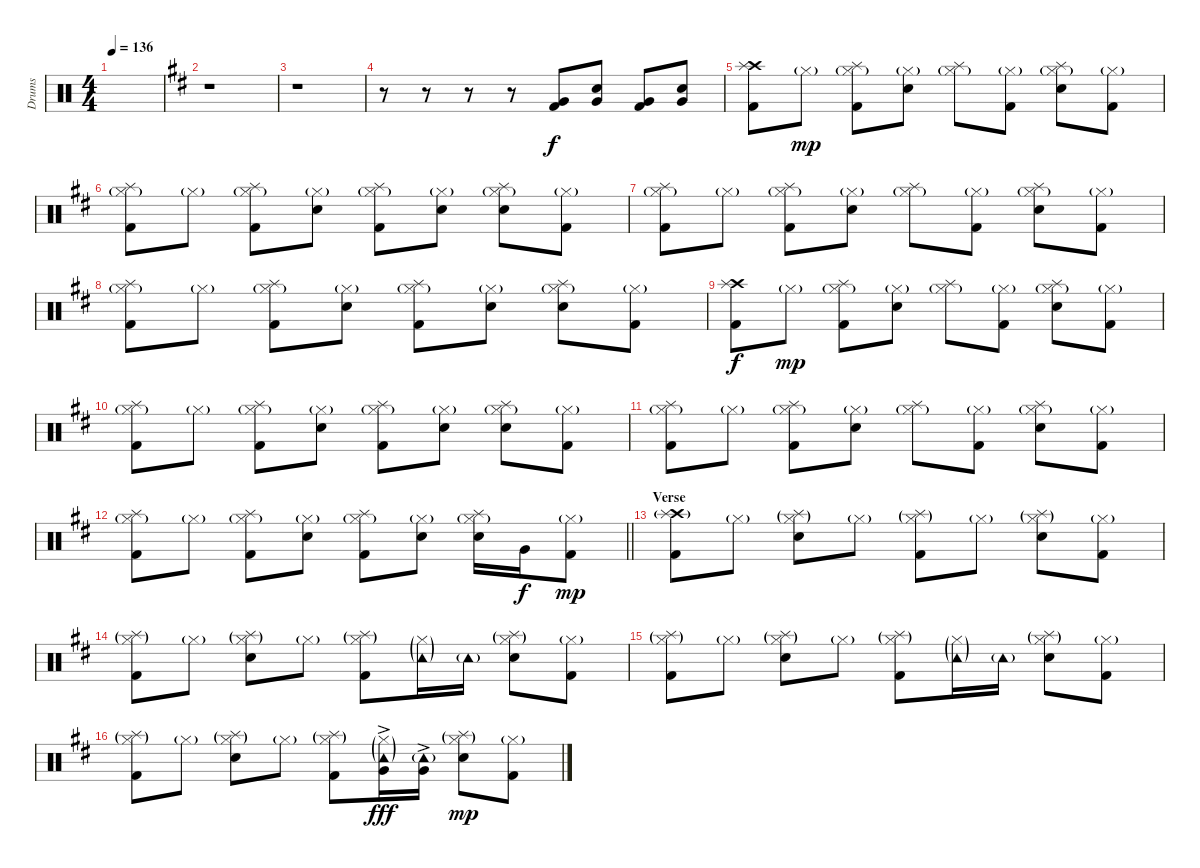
\track ("Drums" "Drums") {instrument percussion}
\staff {score}
\articulation defaults
\ts (4 4)
\tempo 136
\clef neutral
\ks c
|
\ks d
r.1 |
r.1 |
r.8 r.8 r.8 r.8 ("Very Low Tom (hit)" "Kick (hit) 2").8{volume 13} ("Very Low Tom (hit)" "Snare (hit) 2").8 ("Very Low Tom (hit)" "Kick (hit) 2").8 ("Very Low Tom (hit)" "Snare (hit) 2").8 |
("Crash high (hit)" "Splash (hit)" "Kick (hit) 2").8 "Hi-Hat (closed)"{g}.8{dy mp} ("Hi-Hat (closed)"{g} "Splash (hit)" "Kick (hit) 2").8 ("Hi-Hat (closed)"{g} "Snare (hit) 2").8 ("Hi-Hat (closed)"{g} "Splash (hit)").8 ("Hi-Hat (closed)"{g} "Kick (hit) 2").8 ("Hi-Hat (closed)"{g} "Splash (hit)" "Snare (hit) 2").8 ("Hi-Hat (closed)"{g} "Kick (hit) 2").8 |
("Hi-Hat (closed)"{g} "Splash (hit)" "Kick (hit) 2").8 "Hi-Hat (closed)"{g}.8 ("Hi-Hat (closed)"{g} "Splash (hit)" "Kick (hit) 2").8 ("Hi-Hat (closed)"{g} "Snare (hit) 2").8 ("Hi-Hat (closed)"{g} "Splash (hit)" "Kick (hit) 2").8 ("Hi-Hat (closed)"{g} "Snare (hit) 2").8 ("Hi-Hat (closed)"{g} "Splash (hit)" "Snare (hit) 2").8 ("Hi-Hat (closed)"{g} "Kick (hit) 2").8 |
("Hi-Hat (closed)"{g} "Splash (hit)" "Kick (hit) 2").8 "Hi-Hat (closed)"{g}.8 ("Hi-Hat (closed)"{g} "Splash (hit)" "Kick (hit) 2").8 ("Hi-Hat (closed)"{g} "Snare (hit) 2").8 ("Hi-Hat (closed)"{g} "Splash (hit)").8 ("Hi-Hat (closed)"{g} "Kick (hit) 2").8 ("Hi-Hat (closed)"{g} "Splash (hit)" "Snare (hit) 2").8 ("Hi-Hat (closed)"{g} "Kick (hit) 2").8 |
("Hi-Hat (closed)"{g} "Splash (hit)" "Kick (hit) 2").8 "Hi-Hat (closed)"{g}.8 ("Hi-Hat (closed)"{g} "Splash (hit)" "Kick (hit) 2").8 ("Hi-Hat (closed)"{g} "Snare (hit) 2").8 ("Hi-Hat (closed)"{g} "Splash (hit)" "Kick (hit) 2").8 ("Hi-Hat (closed)"{g} "Snare (hit) 2").8 ("Hi-Hat (closed)"{g} "Splash (hit)" "Snare (hit) 2").8 ("Hi-Hat (closed)"{g} "Kick (hit) 2").8 |
("Crash high (hit)" "Splash (hit)" "Kick (hit) 2").8{dy f} "Hi-Hat (closed)"{g}.8{dy mp} ("Hi-Hat (closed)"{g} "Splash (hit)" "Kick (hit) 2").8 ("Hi-Hat (closed)"{g} "Snare (hit) 2").8 ("Hi-Hat (closed)"{g} "Splash (hit)").8 ("Hi-Hat (closed)"{g} "Kick (hit) 2").8 ("Hi-Hat (closed)"{g} "Splash (hit)" "Snare (hit) 2").8 ("Hi-Hat (closed)"{g} "Kick (hit) 2").8 |
("Hi-Hat (closed)"{g} "Splash (hit)" "Kick (hit) 2").8 "Hi-Hat (closed)"{g}.8 ("Hi-Hat (closed)"{g} "Splash (hit)" "Kick (hit) 2").8 ("Hi-Hat (closed)"{g} "Snare (hit) 2").8 ("Hi-Hat (closed)"{g} "Splash (hit)" "Kick (hit) 2").8 ("Hi-Hat (closed)"{g} "Snare (hit) 2").8 ("Hi-Hat (closed)"{g} "Splash (hit)" "Snare (hit) 2").8 ("Hi-Hat (closed)"{g} "Kick (hit) 2").8 |
("Hi-Hat (closed)"{g} "Splash (hit)" "Kick (hit) 2").8 "Hi-Hat (closed)"{g}.8 ("Hi-Hat (closed)"{g} "Splash (hit)" "Kick (hit) 2").8 ("Hi-Hat (closed)"{g} "Snare (hit) 2").8 ("Hi-Hat (closed)"{g} "Splash (hit)").8 ("Hi-Hat (closed)"{g} "Kick (hit) 2").8 ("Hi-Hat (closed)"{g} "Splash (hit)" "Snare (hit) 2").8 ("Hi-Hat (closed)"{g} "Kick (hit) 2").8 |
\barLineRight lightlight
("Hi-Hat (closed)"{g} "Splash (hit)" "Kick (hit) 2").8 "Hi-Hat (closed)"{g}.8 ("Hi-Hat (closed)"{g} "Splash (hit)" "Kick (hit) 2").8 ("Hi-Hat (closed)"{g} "Snare (hit) 2").8 ("Hi-Hat (closed)"{g} "Splash (hit)" "Kick (hit) 2").8 ("Hi-Hat (closed)"{g} "Snare (hit) 2").8 ("Hi-Hat (closed)"{g} "Splash (hit)" "Snare (hit) 2").16 "Very Low Tom (hit)".16{dy f} ("Hi-Hat (closed)"{g} "Kick (hit) 2").8{dy mp} |
\section ("" "Verse")
("Crash high (hit)" "Splash (hit)"{g} "Kick (hit) 2").8 "Hi-Hat (closed)"{g}.8 ("Hi-Hat (closed)"{g} "Splash (hit)"{g} "Snare (hit) 2").8 "Hi-Hat (closed)"{g}.8 ("Hi-Hat (closed)"{g} "Splash (hit)"{g} "Kick (hit) 2").8 "Hi-Hat (closed)"{g}.8 ("Hi-Hat (closed)"{g} "Splash (hit)"{g} "Snare (hit) 2").8 ("Hi-Hat (closed)"{g} "Kick (hit) 2").8 |
("Hi-Hat (closed)"{g} "Splash (hit)"{g} "Kick (hit) 2").8 "Hi-Hat (closed)"{g}.8 ("Hi-Hat (closed)"{g} "Splash (hit)"{g} "Snare (hit) 2").8 "Hi-Hat (closed)"{g}.8 ("Hi-Hat (closed)"{g} "Splash (hit)"{g} "Kick (hit) 2").8 ("Hi-Hat (closed)"{g} "Tambourine (hit)"{g}).16 "Tambourine (hit)"{g}.16 ("Hi-Hat (closed)"{g} "Splash (hit)"{g} "Snare (hit) 2").8 ("Hi-Hat (closed)"{g} "Kick (hit) 2").8 |
("Hi-Hat (closed)"{g} "Splash (hit)"{g} "Kick (hit) 2").8 "Hi-Hat (closed)"{g}.8 ("Hi-Hat (closed)"{g} "Splash (hit)"{g} "Snare (hit) 2").8 "Hi-Hat (closed)"{g}.8 ("Hi-Hat (closed)"{g} "Splash (hit)"{g} "Kick (hit) 2").8 ("Hi-Hat (closed)"{g} "Tambourine (hit)"{g}).16 "Tambourine (hit)"{g}.16 ("Hi-Hat (closed)"{g} "Splash (hit)"{g} "Snare (hit) 2").8 ("Hi-Hat (closed)"{g} "Kick (hit) 2").8 |
("Hi-Hat (closed)"{g} "Splash (hit)"{g} "Kick (hit) 2").8 "Hi-Hat (closed)"{g}.8 ("Hi-Hat (closed)"{g} "Splash (hit)"{g} "Snare (hit) 2").8 "Hi-Hat (closed)"{g}.8 ("Hi-Hat (closed)"{g} "Splash (hit)"{g} "Kick (hit) 2").8 ("Hi-Hat (closed)"{g} "Tambourine (hit)"{g} "Very Low Tom (hit)"{ac}).16{dy fff} ("Tambourine (hit)"{g} "Very Low Tom (hit)"{ac}).16 ("Hi-Hat (closed)"{g} "Splash (hit)"{g} "Snare (hit) 2").8{dy mp} ("Hi-Hat (closed)"{g} "Kick (hit) 2").8
